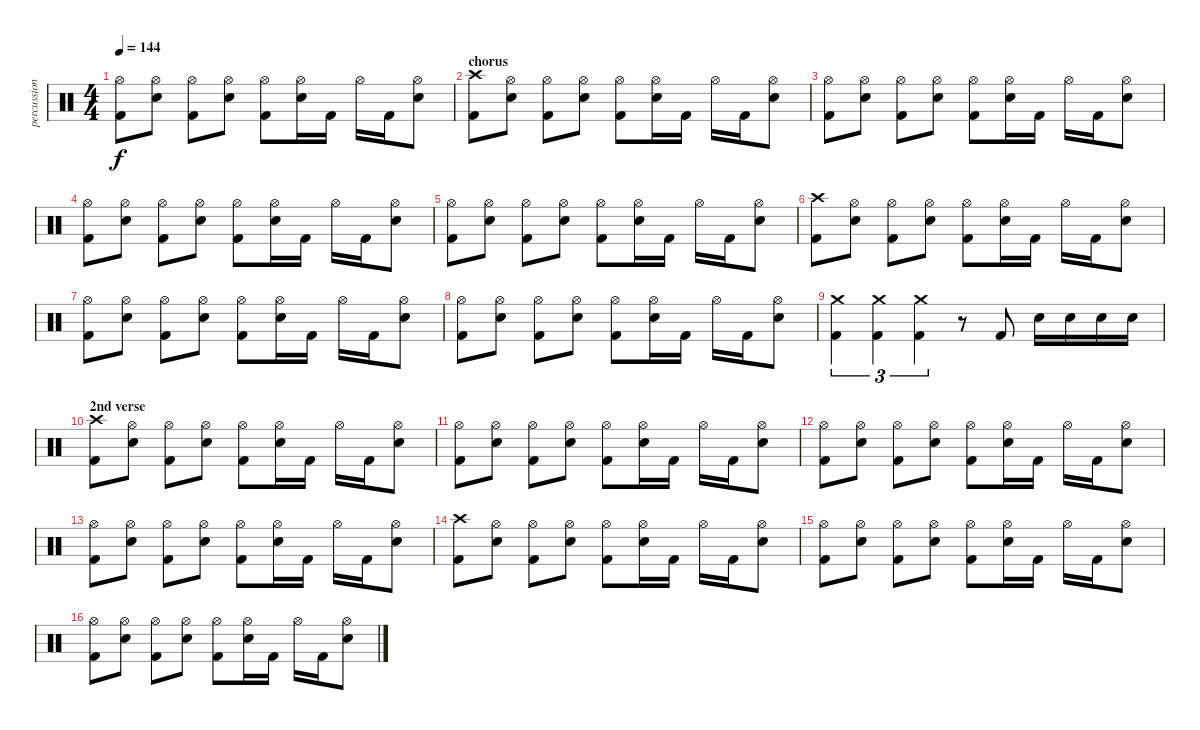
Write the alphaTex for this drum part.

\track ("percussion" "percussion") {instrument percussion}
\staff {score}
\articulation defaults
\ts (4 4)
\tempo 144
\clef neutral
\ks c
("Hi-Hat (open)" "Kick (hit) 2").8{dy f} ("Hi-Hat (open)" "Electric Snare (hit)").8 ("Hi-Hat (open)" "Kick (hit) 2").8 ("Hi-Hat (open)" "Electric Snare (hit)").8 ("Hi-Hat (open)" "Kick (hit) 2").8 ("Hi-Hat (open)" "Electric Snare (hit)").16 "Kick (hit) 2".16 "Hi-Hat (open)".16 "Kick (hit) 2".16 ("Hi-Hat (open)" "Electric Snare (hit)").8 |
\section ("" "chorus")
("Crash high (hit)" "Kick (hit) 2").8 ("Hi-Hat (open)" "Electric Snare (hit)").8 ("Hi-Hat (open)" "Kick (hit) 2").8 ("Hi-Hat (open)" "Electric Snare (hit)").8 ("Hi-Hat (open)" "Kick (hit) 2").8 ("Hi-Hat (open)" "Electric Snare (hit)").16 "Kick (hit) 2".16 "Hi-Hat (open)".16 "Kick (hit) 2".16 ("Hi-Hat (open)" "Electric Snare (hit)").8 |
("Hi-Hat (open)" "Kick (hit) 2").8 ("Hi-Hat (open)" "Electric Snare (hit)").8 ("Hi-Hat (open)" "Kick (hit) 2").8 ("Hi-Hat (open)" "Electric Snare (hit)").8 ("Hi-Hat (open)" "Kick (hit) 2").8 ("Hi-Hat (open)" "Electric Snare (hit)").16 "Kick (hit) 2".16 "Hi-Hat (open)".16 "Kick (hit) 2".16 ("Hi-Hat (open)" "Electric Snare (hit)").8 |
("Hi-Hat (open)" "Kick (hit) 2").8 ("Hi-Hat (open)" "Electric Snare (hit)").8 ("Hi-Hat (open)" "Kick (hit) 2").8 ("Hi-Hat (open)" "Electric Snare (hit)").8 ("Hi-Hat (open)" "Kick (hit) 2").8 ("Hi-Hat (open)" "Electric Snare (hit)").16 "Kick (hit) 2".16 "Hi-Hat (open)".16 "Kick (hit) 2".16 ("Hi-Hat (open)" "Electric Snare (hit)").8 |
("Hi-Hat (open)" "Kick (hit) 2").8 ("Hi-Hat (open)" "Electric Snare (hit)").8 ("Hi-Hat (open)" "Kick (hit) 2").8 ("Hi-Hat (open)" "Electric Snare (hit)").8 ("Hi-Hat (open)" "Kick (hit) 2").8 ("Hi-Hat (open)" "Electric Snare (hit)").16 "Kick (hit) 2".16 "Hi-Hat (open)".16 "Kick (hit) 2".16 ("Hi-Hat (open)" "Electric Snare (hit)").8 |
("Crash high (hit)" "Kick (hit) 2").8 ("Hi-Hat (open)" "Electric Snare (hit)").8 ("Hi-Hat (open)" "Kick (hit) 2").8 ("Hi-Hat (open)" "Electric Snare (hit)").8 ("Hi-Hat (open)" "Kick (hit) 2").8 ("Hi-Hat (open)" "Electric Snare (hit)").16 "Kick (hit) 2".16 "Hi-Hat (open)".16 "Kick (hit) 2".16 ("Hi-Hat (open)" "Electric Snare (hit)").8 |
("Hi-Hat (open)" "Kick (hit) 2").8 ("Hi-Hat (open)" "Electric Snare (hit)").8 ("Hi-Hat (open)" "Kick (hit) 2").8 ("Hi-Hat (open)" "Electric Snare (hit)").8 ("Hi-Hat (open)" "Kick (hit) 2").8 ("Hi-Hat (open)" "Electric Snare (hit)").16 "Kick (hit) 2".16 "Hi-Hat (open)".16 "Kick (hit) 2".16 ("Hi-Hat (open)" "Electric Snare (hit)").8 |
("Hi-Hat (open)" "Kick (hit) 2").8 ("Hi-Hat (open)" "Electric Snare (hit)").8 ("Hi-Hat (open)" "Kick (hit) 2").8 ("Hi-Hat (open)" "Electric Snare (hit)").8 ("Hi-Hat (open)" "Kick (hit) 2").8 ("Hi-Hat (open)" "Electric Snare (hit)").16 "Kick (hit) 2".16 "Hi-Hat (open)".16 "Kick (hit) 2".16 ("Hi-Hat (open)" "Electric Snare (hit)").8 |
("Crash medium (hit)" "Kick (hit) 2").4{tu (3 2)} ("Crash medium (hit)" "Kick (hit) 2").4{tu (3 2)} ("Crash medium (hit)" "Kick (hit) 2").4{tu (3 2)} r.8 "Kick (hit) 2".8 "Electric Snare (hit)".16 "Electric Snare (hit)".16 "Electric Snare (hit)".16 "Electric Snare (hit)".16 |
\section ("" "2nd verse")
("Crash high (hit)" "Kick (hit) 2").8 ("Hi-Hat (open)" "Electric Snare (hit)").8 ("Hi-Hat (open)" "Kick (hit) 2").8 ("Hi-Hat (open)" "Electric Snare (hit)").8 ("Hi-Hat (open)" "Kick (hit) 2").8 ("Hi-Hat (open)" "Electric Snare (hit)").16 "Kick (hit) 2".16 "Hi-Hat (open)".16 "Kick (hit) 2".16 ("Hi-Hat (open)" "Electric Snare (hit)").8 |
("Hi-Hat (open)" "Kick (hit) 2").8 ("Hi-Hat (open)" "Electric Snare (hit)").8 ("Hi-Hat (open)" "Kick (hit) 2").8 ("Hi-Hat (open)" "Electric Snare (hit)").8 ("Hi-Hat (open)" "Kick (hit) 2").8 ("Hi-Hat (open)" "Electric Snare (hit)").16 "Kick (hit) 2".16 "Hi-Hat (open)".16 "Kick (hit) 2".16 ("Hi-Hat (open)" "Electric Snare (hit)").8 |
("Hi-Hat (open)" "Kick (hit) 2").8 ("Hi-Hat (open)" "Electric Snare (hit)").8 ("Hi-Hat (open)" "Kick (hit) 2").8 ("Hi-Hat (open)" "Electric Snare (hit)").8 ("Hi-Hat (open)" "Kick (hit) 2").8 ("Hi-Hat (open)" "Electric Snare (hit)").16 "Kick (hit) 2".16 "Hi-Hat (open)".16 "Kick (hit) 2".16 ("Hi-Hat (open)" "Electric Snare (hit)").8 |
("Hi-Hat (open)" "Kick (hit) 2").8 ("Hi-Hat (open)" "Electric Snare (hit)").8 ("Hi-Hat (open)" "Kick (hit) 2").8 ("Hi-Hat (open)" "Electric Snare (hit)").8 ("Hi-Hat (open)" "Kick (hit) 2").8 ("Hi-Hat (open)" "Electric Snare (hit)").16 "Kick (hit) 2".16 "Hi-Hat (open)".16 "Kick (hit) 2".16 ("Hi-Hat (open)" "Electric Snare (hit)").8 |
("Crash high (hit)" "Kick (hit) 2").8 ("Hi-Hat (open)" "Electric Snare (hit)").8 ("Hi-Hat (open)" "Kick (hit) 2").8 ("Hi-Hat (open)" "Electric Snare (hit)").8 ("Hi-Hat (open)" "Kick (hit) 2").8 ("Hi-Hat (open)" "Electric Snare (hit)").16 "Kick (hit) 2".16 "Hi-Hat (open)".16 "Kick (hit) 2".16 ("Hi-Hat (open)" "Electric Snare (hit)").8 |
("Hi-Hat (open)" "Kick (hit) 2").8 ("Hi-Hat (open)" "Electric Snare (hit)").8 ("Hi-Hat (open)" "Kick (hit) 2").8 ("Hi-Hat (open)" "Electric Snare (hit)").8 ("Hi-Hat (open)" "Kick (hit) 2").8 ("Hi-Hat (open)" "Electric Snare (hit)").16 "Kick (hit) 2".16 "Hi-Hat (open)".16 "Kick (hit) 2".16 ("Hi-Hat (open)" "Electric Snare (hit)").8 |
("Hi-Hat (open)" "Kick (hit) 2").8 ("Hi-Hat (open)" "Electric Snare (hit)").8 ("Hi-Hat (open)" "Kick (hit) 2").8 ("Hi-Hat (open)" "Electric Snare (hit)").8 ("Hi-Hat (open)" "Kick (hit) 2").8 ("Hi-Hat (open)" "Electric Snare (hit)").16 "Kick (hit) 2".16 "Hi-Hat (open)".16 "Kick (hit) 2".16 ("Hi-Hat (open)" "Electric Snare (hit)").8
